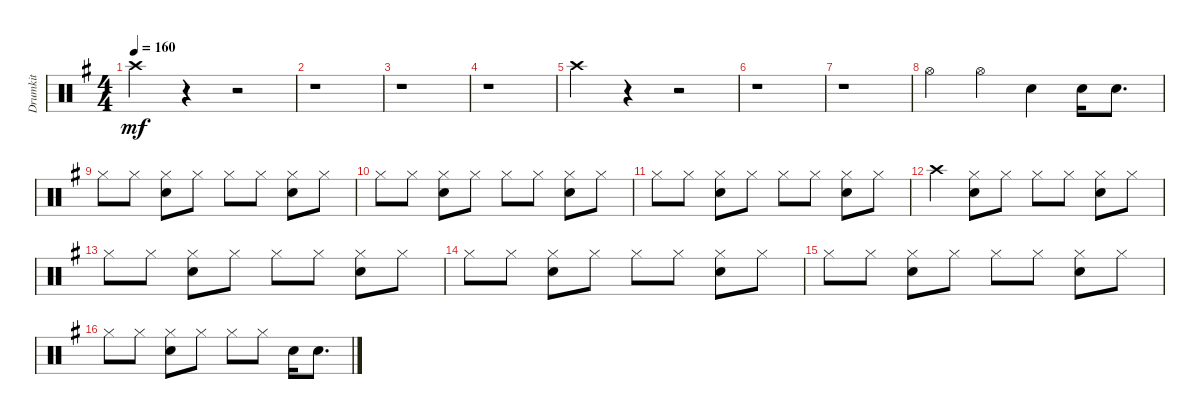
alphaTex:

\track ("Drumkit" "Drumkit") {instrument percussion}
\staff {score}
\articulation defaults
\ts (4 4)
\tempo 160
\clef neutral
\ks g "Crash high (hit)".4{dy mf}
r.4 r.2 |
r.1 |
r.1 |
r.1 |
"Crash high (hit)".4 r.4 r.2 |
r.1 |
r.1 |
"Hi-Hat (open)".4 "Hi-Hat (open)".4 "Snare (hit) 2".4 "Snare (hit) 2".16 "Snare (hit) 2".8{d} |
"Hi-Hat (closed)".8 "Hi-Hat (closed)".8 ("Hi-Hat (closed)" "Snare (hit) 2").8 "Hi-Hat (closed)".8 "Hi-Hat (closed)".8 "Hi-Hat (closed)".8 ("Hi-Hat (closed)" "Snare (hit) 2").8 "Hi-Hat (closed)".8 |
"Hi-Hat (closed)".8 "Hi-Hat (closed)".8 ("Hi-Hat (closed)" "Snare (hit) 2").8 "Hi-Hat (closed)".8 "Hi-Hat (closed)".8 "Hi-Hat (closed)".8 ("Hi-Hat (closed)" "Snare (hit) 2").8 "Hi-Hat (closed)".8 |
"Hi-Hat (closed)".8 "Hi-Hat (closed)".8 ("Hi-Hat (closed)" "Snare (hit) 2").8 "Hi-Hat (closed)".8 "Hi-Hat (closed)".8 "Hi-Hat (closed)".8 ("Hi-Hat (closed)" "Snare (hit) 2").8 "Hi-Hat (closed)".8 |
"Crash high (hit)".4 ("Hi-Hat (closed)" "Snare (hit) 2").8 "Hi-Hat (closed)".8 "Hi-Hat (closed)".8 "Hi-Hat (closed)".8 ("Hi-Hat (closed)" "Snare (hit) 2").8 "Hi-Hat (closed)".8 |
"Hi-Hat (closed)".8 "Hi-Hat (closed)".8 ("Hi-Hat (closed)" "Snare (hit) 2").8 "Hi-Hat (closed)".8 "Hi-Hat (closed)".8 "Hi-Hat (closed)".8 ("Hi-Hat (closed)" "Snare (hit) 2").8 "Hi-Hat (closed)".8 |
"Hi-Hat (closed)".8 "Hi-Hat (closed)".8 ("Hi-Hat (closed)" "Snare (hit) 2").8 "Hi-Hat (closed)".8 "Hi-Hat (closed)".8 "Hi-Hat (closed)".8 ("Hi-Hat (closed)" "Snare (hit) 2").8 "Hi-Hat (closed)".8 |
"Hi-Hat (closed)".8 "Hi-Hat (closed)".8 ("Hi-Hat (closed)" "Snare (hit) 2").8 "Hi-Hat (closed)".8 "Hi-Hat (closed)".8 "Hi-Hat (closed)".8 ("Hi-Hat (closed)" "Snare (hit) 2").8 "Hi-Hat (closed)".8 |
"Hi-Hat (closed)".8 "Hi-Hat (closed)".8 ("Hi-Hat (closed)" "Snare (hit) 2").8 "Hi-Hat (closed)".8 "Hi-Hat (closed)".8 "Hi-Hat (closed)".8 "Snare (hit) 2".16 "Snare (hit) 2".8{d}
